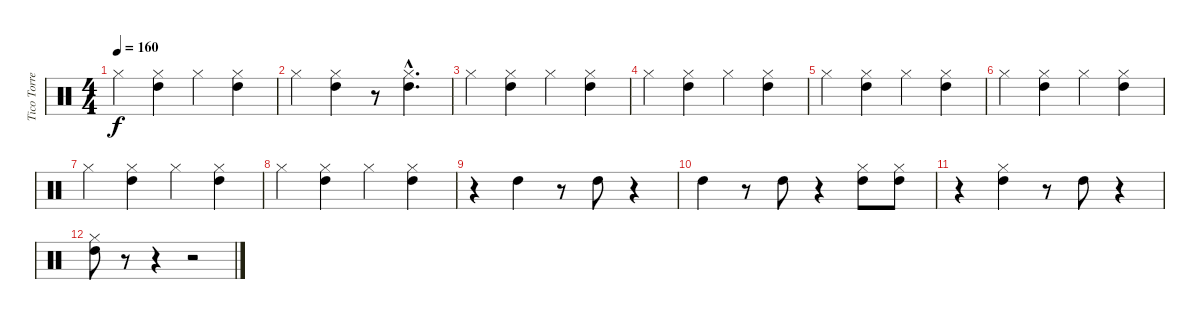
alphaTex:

\track ("Tico Torres" "Tico Torre") {instrument percussion}
\staff {score}
\articulation defaults
\ts (4 4)
\tempo 160
\clef neutral
\ks c "Hi-Hat (closed)".4{dy f}
("Hi-Hat (closed)" "High Tom (hit)").4 "Hi-Hat (closed)".4 ("Hi-Hat (closed)" "High Tom (hit)").4 |
"Hi-Hat (closed)".4 ("Hi-Hat (closed)" "High Tom (hit)").4 r.8 ("Hi-Hat (closed)"{hac} "High Tom (hit)"{hac}).4{d} |
"Hi-Hat (closed)".4 ("Hi-Hat (closed)" "High Tom (hit)").4 "Hi-Hat (closed)".4 ("Hi-Hat (closed)" "High Tom (hit)").4 |
"Hi-Hat (closed)".4 ("Hi-Hat (closed)" "High Tom (hit)").4 "Hi-Hat (closed)".4 ("Hi-Hat (closed)" "High Tom (hit)").4 |
"Hi-Hat (closed)".4 ("Hi-Hat (closed)" "High Tom (hit)").4 "Hi-Hat (closed)".4 ("Hi-Hat (closed)" "High Tom (hit)").4 |
"Hi-Hat (closed)".4 ("Hi-Hat (closed)" "High Tom (hit)").4 "Hi-Hat (closed)".4 ("Hi-Hat (closed)" "High Tom (hit)").4 |
"Hi-Hat (closed)".4 ("Hi-Hat (closed)" "High Tom (hit)").4 "Hi-Hat (closed)".4 ("Hi-Hat (closed)" "High Tom (hit)").4 |
"Hi-Hat (closed)".4 ("Hi-Hat (closed)" "High Tom (hit)").4 "Hi-Hat (closed)".4 ("Hi-Hat (closed)" "High Tom (hit)").4 |
r.4 "High Tom (hit)".4 r.8 "High Tom (hit)".8 r.4 |
"High Tom (hit)".4 r.8 "High Tom (hit)".8 r.4 ("Hi-Hat (closed)" "High Tom (hit)").8 ("Hi-Hat (closed)" "High Tom (hit)").8 |
r.4 ("Hi-Hat (closed)" "High Tom (hit)").4 r.8 "High Tom (hit)".8 r.4 |
("Hi-Hat (closed)" "High Tom (hit)").8 r.8 r.4 r.2
